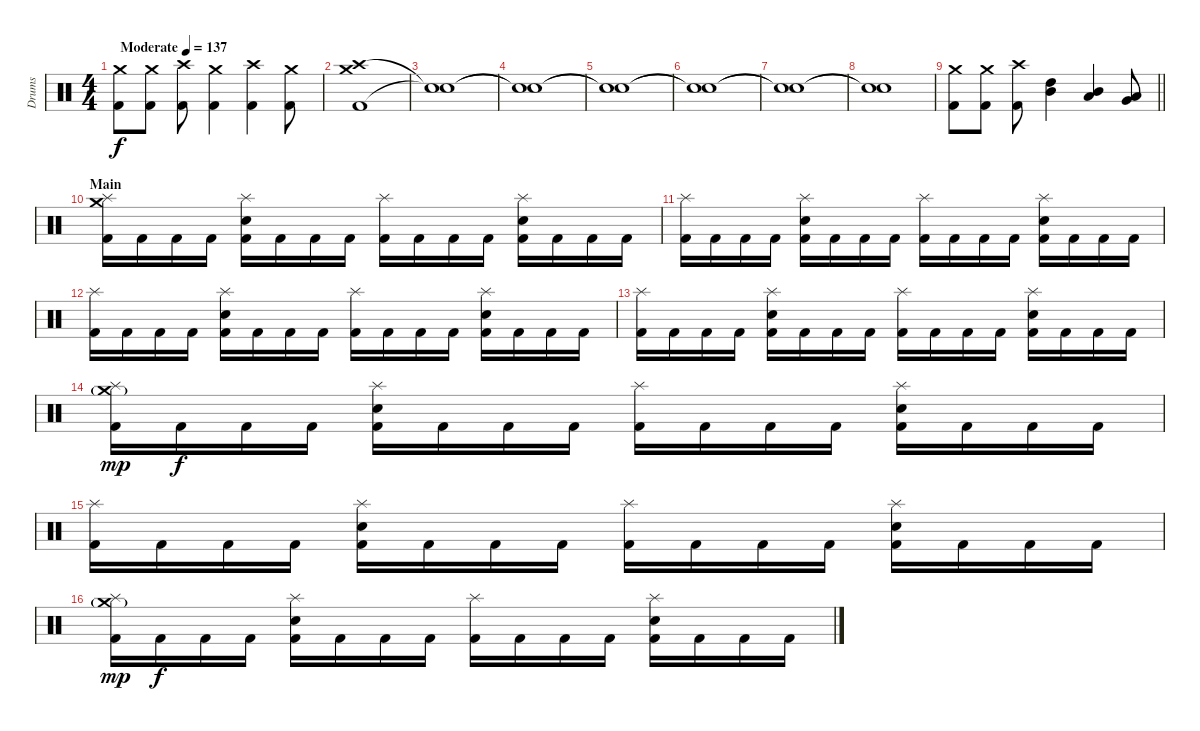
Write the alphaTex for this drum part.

\track ("Drums" "Drums") {instrument percussion}
\staff {score}
\articulation defaults
\ts (4 4)
\tempo (137 "Moderate")
\clef neutral
\ks c
("Kick (hit) 2" "Crash medium (hit)").8{dy f} ("Kick (hit) 2" "Crash medium (hit)").8 ("Kick (hit) 2" "Crash high (hit)").8 ("Kick (hit) 2" "Crash medium (hit)").4 ("Kick (hit) 2" "Crash high (hit)").4 ("Kick (hit) 2" "Crash medium (hit)").8 |
("Kick (hit) 2" "Crash high (hit)" "Crash medium (hit)").1 |
("Snare (hit)"{t} "Snare (hit)"{t}).1 |
("Snare (hit)"{t} "Snare (hit)"{t}).1 |
("Snare (hit)"{t} "Snare (hit)"{t}).1 |
("Snare (hit)"{t} "Snare (hit)"{t}).1 |
("Snare (hit)"{t} "Snare (hit)"{t}).1 |
("Snare (hit)"{t} "Snare (hit)"{t}).1 |
\barLineRight lightlight
("Kick (hit) 2" "Crash medium (hit)").8 ("Kick (hit) 2" "Crash medium (hit)").8 ("Kick (hit) 2" "Crash high (hit)").8 ("High Tom (hit)" "Mid Tom (hit)").4 ("Mid Tom (hit)" "Low Tom (hit)").4 ("Low Tom (hit)" "Very Low Tom (hit)").8 |
\section ("" "Main")
("Kick (hit) 2" "Splash (hit)" "Crash medium (hit)").16 "Kick (hit) 2".16 "Kick (hit) 2".16 "Kick (hit) 2".16 ("Kick (hit) 2" "Snare (hit) 2" "Splash (hit)").16 "Kick (hit) 2".16 "Kick (hit) 2".16 "Kick (hit) 2".16 ("Kick (hit) 2" "Splash (hit)").16 "Kick (hit) 2".16 "Kick (hit) 2".16 "Kick (hit) 2".16 ("Kick (hit) 2" "Snare (hit) 2" "Splash (hit)").16 "Kick (hit) 2".16 "Kick (hit) 2".16 "Kick (hit) 2".16 |
("Kick (hit) 2" "Splash (hit)").16 "Kick (hit) 2".16 "Kick (hit) 2".16 "Kick (hit) 2".16 ("Kick (hit) 2" "Snare (hit) 2" "Splash (hit)").16 "Kick (hit) 2".16 "Kick (hit) 2".16 "Kick (hit) 2".16 ("Kick (hit) 2" "Splash (hit)").16 "Kick (hit) 2".16 "Kick (hit) 2".16 "Kick (hit) 2".16 ("Kick (hit) 2" "Snare (hit) 2" "Splash (hit)").16 "Kick (hit) 2".16 "Kick (hit) 2".16 "Kick (hit) 2".16 |
("Kick (hit) 2" "Splash (hit)").16 "Kick (hit) 2".16 "Kick (hit) 2".16 "Kick (hit) 2".16 ("Kick (hit) 2" "Snare (hit) 2" "Splash (hit)").16 "Kick (hit) 2".16 "Kick (hit) 2".16 "Kick (hit) 2".16 ("Kick (hit) 2" "Splash (hit)").16 "Kick (hit) 2".16 "Kick (hit) 2".16 "Kick (hit) 2".16 ("Kick (hit) 2" "Snare (hit) 2" "Splash (hit)").16 "Kick (hit) 2".16 "Kick (hit) 2".16 "Kick (hit) 2".16 |
("Kick (hit) 2" "Splash (hit)").16 "Kick (hit) 2".16 "Kick (hit) 2".16 "Kick (hit) 2".16 ("Kick (hit) 2" "Snare (hit) 2" "Splash (hit)").16 "Kick (hit) 2".16 "Kick (hit) 2".16 "Kick (hit) 2".16 ("Kick (hit) 2" "Splash (hit)").16 "Kick (hit) 2".16 "Kick (hit) 2".16 "Kick (hit) 2".16 ("Kick (hit) 2" "Snare (hit) 2" "Splash (hit)").16 "Kick (hit) 2".16 "Kick (hit) 2".16 "Kick (hit) 2".16 |
("Kick (hit) 2" "Splash (hit)" "Crash medium (hit)"{g}).16{dy mp} "Kick (hit) 2".16{dy f} "Kick (hit) 2".16 "Kick (hit) 2".16 ("Kick (hit) 2" "Snare (hit) 2" "Splash (hit)").16 "Kick (hit) 2".16 "Kick (hit) 2".16 "Kick (hit) 2".16 ("Kick (hit) 2" "Splash (hit)").16 "Kick (hit) 2".16 "Kick (hit) 2".16 "Kick (hit) 2".16 ("Kick (hit) 2" "Snare (hit) 2" "Splash (hit)").16 "Kick (hit) 2".16 "Kick (hit) 2".16 "Kick (hit) 2".16 |
("Kick (hit) 2" "Splash (hit)").16 "Kick (hit) 2".16 "Kick (hit) 2".16 "Kick (hit) 2".16 ("Kick (hit) 2" "Snare (hit) 2" "Splash (hit)").16 "Kick (hit) 2".16 "Kick (hit) 2".16 "Kick (hit) 2".16 ("Kick (hit) 2" "Splash (hit)").16 "Kick (hit) 2".16 "Kick (hit) 2".16 "Kick (hit) 2".16 ("Kick (hit) 2" "Snare (hit) 2" "Splash (hit)").16 "Kick (hit) 2".16 "Kick (hit) 2".16 "Kick (hit) 2".16 |
("Kick (hit) 2" "Splash (hit)" "Crash medium (hit)"{g}).16{dy mp} "Kick (hit) 2".16{dy f} "Kick (hit) 2".16 "Kick (hit) 2".16 ("Kick (hit) 2" "Snare (hit) 2" "Splash (hit)").16 "Kick (hit) 2".16 "Kick (hit) 2".16 "Kick (hit) 2".16 ("Kick (hit) 2" "Splash (hit)").16 "Kick (hit) 2".16 "Kick (hit) 2".16 "Kick (hit) 2".16 ("Kick (hit) 2" "Snare (hit) 2" "Splash (hit)").16 "Kick (hit) 2".16 "Kick (hit) 2".16 "Kick (hit) 2".16
